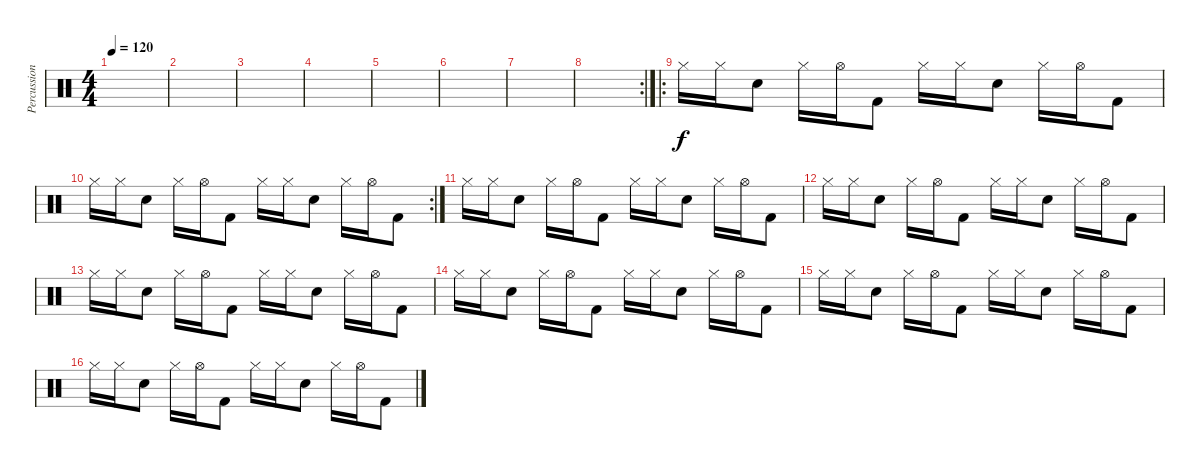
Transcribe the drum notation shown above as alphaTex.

\track ("Percussions" "Percussion") {instrument percussion}
\staff {score}
\articulation defaults
\ts (4 4)
\tempo 120
\clef neutral
\ks c
|
|
|
|
|
|
|
\rc 2
|
\ro "Hi-Hat (closed)".16 "Hi-Hat (closed)".16 "Snare (hit) 2".8 "Hi-Hat (closed)".16 "Hi-Hat (open)".16 "Kick (hit) 2".8 "Hi-Hat (closed)".16 "Hi-Hat (closed)".16 "Snare (hit) 2".8 "Hi-Hat (closed)".16 "Hi-Hat (open)".16 "Kick (hit) 2".8
|
\rc 2 "Hi-Hat (closed)".16 "Hi-Hat (closed)".16 "Snare (hit) 2".8 "Hi-Hat (closed)".16 "Hi-Hat (open)".16 "Kick (hit) 2".8 "Hi-Hat (closed)".16 "Hi-Hat (closed)".16 "Snare (hit) 2".8 "Hi-Hat (closed)".16 "Hi-Hat (open)".16 "Kick (hit) 2".8
|
"Hi-Hat (closed)".16 "Hi-Hat (closed)".16 "Snare (hit) 2".8 "Hi-Hat (closed)".16 "Hi-Hat (open)".16 "Kick (hit) 2".8 "Hi-Hat (closed)".16 "Hi-Hat (closed)".16 "Snare (hit) 2".8 "Hi-Hat (closed)".16 "Hi-Hat (open)".16 "Kick (hit) 2".8 |
"Hi-Hat (closed)".16 "Hi-Hat (closed)".16 "Snare (hit) 2".8 "Hi-Hat (closed)".16 "Hi-Hat (open)".16 "Kick (hit) 2".8 "Hi-Hat (closed)".16 "Hi-Hat (closed)".16 "Snare (hit) 2".8 "Hi-Hat (closed)".16 "Hi-Hat (open)".16 "Kick (hit) 2".8 |
"Hi-Hat (closed)".16 "Hi-Hat (closed)".16 "Snare (hit) 2".8 "Hi-Hat (closed)".16 "Hi-Hat (open)".16 "Kick (hit) 2".8 "Hi-Hat (closed)".16 "Hi-Hat (closed)".16 "Snare (hit) 2".8 "Hi-Hat (closed)".16 "Hi-Hat (open)".16 "Kick (hit) 2".8 |
"Hi-Hat (closed)".16 "Hi-Hat (closed)".16 "Snare (hit) 2".8 "Hi-Hat (closed)".16 "Hi-Hat (open)".16 "Kick (hit) 2".8 "Hi-Hat (closed)".16 "Hi-Hat (closed)".16 "Snare (hit) 2".8 "Hi-Hat (closed)".16 "Hi-Hat (open)".16 "Kick (hit) 2".8 |
"Hi-Hat (closed)".16 "Hi-Hat (closed)".16 "Snare (hit) 2".8 "Hi-Hat (closed)".16 "Hi-Hat (open)".16 "Kick (hit) 2".8 "Hi-Hat (closed)".16 "Hi-Hat (closed)".16 "Snare (hit) 2".8 "Hi-Hat (closed)".16 "Hi-Hat (open)".16 "Kick (hit) 2".8 |
"Hi-Hat (closed)".16 "Hi-Hat (closed)".16 "Snare (hit) 2".8 "Hi-Hat (closed)".16 "Hi-Hat (open)".16 "Kick (hit) 2".8 "Hi-Hat (closed)".16 "Hi-Hat (closed)".16 "Snare (hit) 2".8 "Hi-Hat (closed)".16 "Hi-Hat (open)".16 "Kick (hit) 2".8
